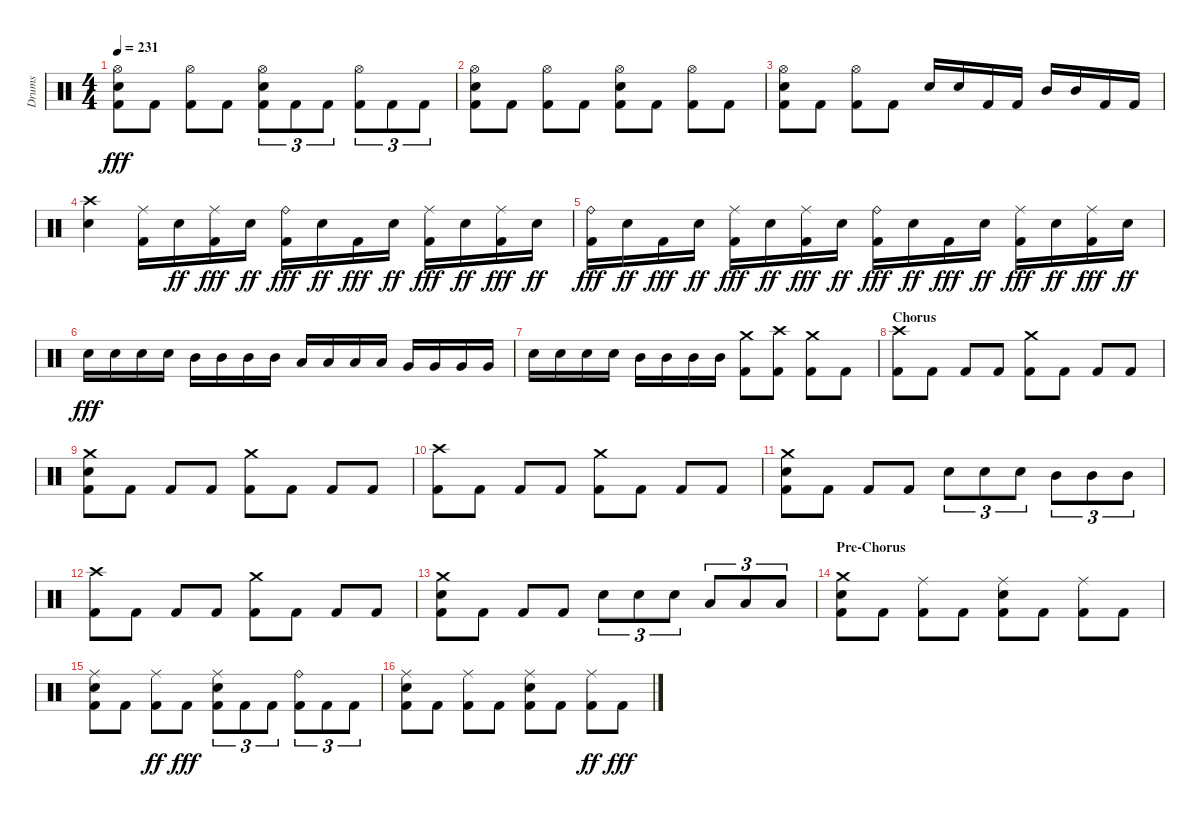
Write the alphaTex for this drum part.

\track ("Drums" "Drums") {instrument percussion}
\staff {score}
\articulation defaults
\ts (4 4)
\tempo 231
\clef neutral
\ks aminor
("Hi-Hat (open)" "Kick (hit) 2" "Snare (hit) 2").8{dy fff} "Kick (hit) 2".8 ("Kick (hit) 2" "Hi-Hat (open)").8 "Kick (hit) 2".8 ("Snare (hit) 2" "Kick (hit) 2" "Hi-Hat (open)").8{tu (3 2)} "Kick (hit) 2".8{tu (3 2)} "Kick (hit) 2".8{tu (3 2)} ("Hi-Hat (open)" "Kick (hit) 2").8{tu (3 2)} "Kick (hit) 2".8{tu (3 2)} "Kick (hit) 2".8{tu (3 2)} |
("Snare (hit) 2" "Kick (hit) 2" "Hi-Hat (open)").8 "Kick (hit) 2".8 ("Kick (hit) 2" "Hi-Hat (open)").8 "Kick (hit) 2".8 ("Kick (hit) 2" "Snare (hit) 2" "Hi-Hat (open)").8 "Kick (hit) 2".8 ("Kick (hit) 2" "Hi-Hat (open)").8 "Kick (hit) 2".8 |
("Kick (hit) 2" "Snare (hit) 2" "Hi-Hat (open)").8 "Kick (hit) 2".8 ("Kick (hit) 2" "Hi-Hat (open)").8 "Kick (hit) 2".8 "Snare (hit) 2".16 "Snare (hit) 2".16 "Kick (hit) 2".16 "Kick (hit) 2".16 "Mid Tom (hit)".16 "Mid Tom (hit)".16 "Kick (hit) 2".16 "Kick (hit) 2".16 |
("Snare (hit) 2" "Crash high (hit)").4 ("Ride (middle)" "Kick (hit) 2").16 "Snare (hit) 2".16{dy ff} ("Kick (hit) 2" "Ride (middle)").16{dy fff} "Snare (hit) 2".16{dy ff} ("Kick (hit) 2" "Ride (bell)").16{dy fff} "Snare (hit) 2".16{dy ff} "Kick (hit) 2".16{dy fff} "Snare (hit) 2".16{dy ff} ("Ride (middle)" "Kick (hit) 2").16{dy fff} "Snare (hit) 2".16{dy ff} ("Kick (hit) 2" "Ride (middle)").16{dy fff} "Snare (hit) 2".16{dy ff} |
("Ride (bell)" "Kick (hit) 2").16{dy fff} "Snare (hit) 2".16{dy ff} "Kick (hit) 2".16{dy fff} "Snare (hit) 2".16{dy ff} ("Kick (hit) 2" "Ride (middle)").16{dy fff} "Snare (hit) 2".16{dy ff} ("Kick (hit) 2" "Ride (middle)").16{dy fff} "Snare (hit) 2".16{dy ff} ("Kick (hit) 2" "Ride (bell)").16{dy fff} "Snare (hit) 2".16{dy ff} "Kick (hit) 2".16{dy fff} "Snare (hit) 2".16{dy ff} ("Ride (middle)" "Kick (hit) 2").16{dy fff} "Snare (hit) 2".16{dy ff} ("Kick (hit) 2" "Ride (middle)").16{dy fff} "Snare (hit) 2".16{dy ff} |
"Snare (hit) 2".16{dy fff} "Snare (hit) 2".16 "Snare (hit) 2".16 "Snare (hit) 2".16 "Mid Tom (hit)".16 "Mid Tom (hit)".16 "Mid Tom (hit)".16 "Mid Tom (hit)".16 "Low Tom (hit)".16 "Low Tom (hit)".16 "Low Tom (hit)".16 "Low Tom (hit)".16 "Very Low Tom (hit)".16 "Very Low Tom (hit)".16 "Very Low Tom (hit)".16 "Very Low Tom (hit)".16 |
"Snare (hit) 2".16 "Snare (hit) 2".16 "Snare (hit) 2".16 "Snare (hit) 2".16 "Mid Tom (hit)".16 "Mid Tom (hit)".16 "Mid Tom (hit)".16 "Mid Tom (hit)".16 ("Crash medium (hit)" "Kick (hit) 2").8 ("Crash high (hit)" "Kick (hit) 2").8 ("Kick (hit) 2" "Crash medium (hit)").8 "Kick (hit) 2".8 |
\section ("" "Chorus")
("Kick (hit) 2" "Crash high (hit)").8 "Kick (hit) 2".8 "Kick (hit) 2".8 "Kick (hit) 2".8 ("Kick (hit) 2" "Crash medium (hit)").8 "Kick (hit) 2".8 "Kick (hit) 2".8 "Kick (hit) 2".8 |
("Crash medium (hit)" "Snare (hit) 2" "Kick (hit) 2").8 "Kick (hit) 2".8 "Kick (hit) 2".8 "Kick (hit) 2".8 ("Crash medium (hit)" "Kick (hit) 2").8 "Kick (hit) 2".8 "Kick (hit) 2".8 "Kick (hit) 2".8 |
("Kick (hit) 2" "Crash high (hit)").8 "Kick (hit) 2".8 "Kick (hit) 2".8 "Kick (hit) 2".8 ("Kick (hit) 2" "Crash medium (hit)").8 "Kick (hit) 2".8 "Kick (hit) 2".8 "Kick (hit) 2".8 |
("Kick (hit) 2" "Snare (hit) 2" "Crash medium (hit)").8 "Kick (hit) 2".8 "Kick (hit) 2".8 "Kick (hit) 2".8 "Snare (hit) 2".8{tu (3 2)} "Snare (hit) 2".8{tu (3 2)} "Snare (hit) 2".8{tu (3 2)} "Mid Tom (hit)".8{tu (3 2)} "Mid Tom (hit)".8{tu (3 2)} "Mid Tom (hit)".8{tu (3 2)} |
("Crash high (hit)" "Kick (hit) 2").8 "Kick (hit) 2".8 "Kick (hit) 2".8 "Kick (hit) 2".8 ("Crash medium (hit)" "Kick (hit) 2").8 "Kick (hit) 2".8 "Kick (hit) 2".8 "Kick (hit) 2".8 |
("Kick (hit) 2" "Snare (hit) 2" "Crash medium (hit)").8 "Kick (hit) 2".8 "Kick (hit) 2".8 "Kick (hit) 2".8 "Snare (hit) 2".8{tu (3 2)} "Snare (hit) 2".8{tu (3 2)} "Snare (hit) 2".8{tu (3 2)} "Low Tom (hit)".8{tu (3 2)} "Low Tom (hit)".8{tu (3 2)} "Low Tom (hit)".8{tu (3 2)} |
\section ("" "Pre-Chorus")
("Snare (hit) 2" "Crash medium (hit)" "Kick (hit) 2").8 "Kick (hit) 2".8 ("Kick (hit) 2" "Ride (middle)").8 "Kick (hit) 2".8 ("Kick (hit) 2" "Ride (middle)" "Snare (hit) 2").8 "Kick (hit) 2".8 ("Kick (hit) 2" "Ride (middle)").8 "Kick (hit) 2".8 |
("Snare (hit) 2" "Ride (middle)" "Kick (hit) 2").8 "Kick (hit) 2".8 ("Ride (middle)" "Kick (hit) 2").8{dy ff} "Kick (hit) 2".8{dy fff} ("Ride (middle)" "Kick (hit) 2" "Snare (hit) 2").8{tu (3 2)} "Kick (hit) 2".8{tu (3 2)} "Kick (hit) 2".8{tu (3 2)} ("Kick (hit) 2" "Ride (bell)").8{tu (3 2)} "Kick (hit) 2".8{tu (3 2)} "Kick (hit) 2".8{tu (3 2)} |
("Snare (hit) 2" "Ride (middle)" "Kick (hit) 2").8 "Kick (hit) 2".8 ("Kick (hit) 2" "Ride (middle)").8 "Kick (hit) 2".8 ("Kick (hit) 2" "Snare (hit) 2" "Ride (middle)").8 "Kick (hit) 2".8 ("Ride (middle)" "Kick (hit) 2").8{dy ff} "Kick (hit) 2".8{dy fff}
